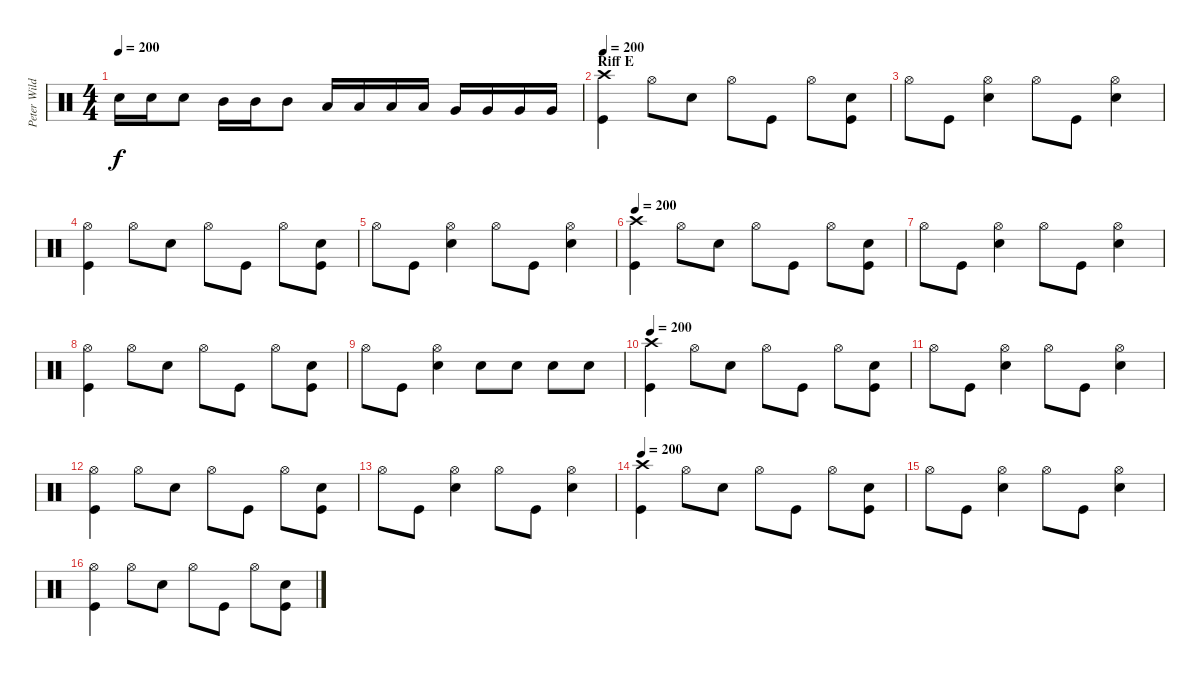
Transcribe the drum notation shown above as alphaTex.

\track ("Peter Wildoer " "Peter Wild") {instrument percussion}
\staff {score}
\articulation defaults
\ts (4 4)
\tempo 200
\clef neutral
\ks c "Snare (hit) 2".16{dy f} "Snare (hit) 2".16 "Snare (hit) 2".8 "Mid Tom (hit)".16 "Mid Tom (hit)".16 "Mid Tom (hit)".8 "Low Tom (hit)".16 "Low Tom (hit)".16 "Low Tom (hit)".16 "Low Tom (hit)".16 "Very Low Tom (hit)".16 "Very Low Tom (hit)".16 "Very Low Tom (hit)".16 "Very Low Tom (hit)".16
|
\section ("" "Riff E")
\tempo 200
("Crash high (hit)" "Kick (hit)").4 "Hi-Hat (open)".8 "Electric Snare (hit)".8 "Hi-Hat (open)".8 "Kick (hit)".8 "Hi-Hat (open)".8 ("Electric Snare (hit)" "Kick (hit)").8 |
"Hi-Hat (open)".8 "Kick (hit)".8 ("Hi-Hat (open)" "Electric Snare (hit)").4 "Hi-Hat (open)".8 "Kick (hit)".8 ("Hi-Hat (open)" "Electric Snare (hit)").4 |
("Hi-Hat (open)" "Kick (hit)").4 "Hi-Hat (open)".8 "Electric Snare (hit)".8 "Hi-Hat (open)".8 "Kick (hit)".8 "Hi-Hat (open)".8 ("Electric Snare (hit)" "Kick (hit)").8 |
"Hi-Hat (open)".8 "Kick (hit)".8 ("Hi-Hat (open)" "Electric Snare (hit)").4 "Hi-Hat (open)".8 "Kick (hit)".8 ("Hi-Hat (open)" "Electric Snare (hit)").4 |
\tempo 200
("Crash high (hit)" "Kick (hit)").4 "Hi-Hat (open)".8 "Electric Snare (hit)".8 "Hi-Hat (open)".8 "Kick (hit)".8 "Hi-Hat (open)".8 ("Electric Snare (hit)" "Kick (hit)").8 |
"Hi-Hat (open)".8 "Kick (hit)".8 ("Hi-Hat (open)" "Electric Snare (hit)").4 "Hi-Hat (open)".8 "Kick (hit)".8 ("Hi-Hat (open)" "Electric Snare (hit)").4 |
("Hi-Hat (open)" "Kick (hit)").4 "Hi-Hat (open)".8 "Electric Snare (hit)".8 "Hi-Hat (open)".8 "Kick (hit)".8 "Hi-Hat (open)".8 ("Electric Snare (hit)" "Kick (hit)").8 |
"Hi-Hat (open)".8 "Kick (hit)".8 ("Hi-Hat (open)" "Electric Snare (hit)").4 "Electric Snare (hit)".8 "Electric Snare (hit)".8 "Electric Snare (hit)".8 "Electric Snare (hit)".8 |
\tempo 200
("Crash high (hit)" "Kick (hit)").4 "Hi-Hat (open)".8 "Electric Snare (hit)".8 "Hi-Hat (open)".8 "Kick (hit)".8 "Hi-Hat (open)".8 ("Electric Snare (hit)" "Kick (hit)").8 |
"Hi-Hat (open)".8 "Kick (hit)".8 ("Hi-Hat (open)" "Electric Snare (hit)").4 "Hi-Hat (open)".8 "Kick (hit)".8 ("Hi-Hat (open)" "Electric Snare (hit)").4 |
("Hi-Hat (open)" "Kick (hit)").4 "Hi-Hat (open)".8 "Electric Snare (hit)".8 "Hi-Hat (open)".8 "Kick (hit)".8 "Hi-Hat (open)".8 ("Electric Snare (hit)" "Kick (hit)").8 |
"Hi-Hat (open)".8 "Kick (hit)".8 ("Hi-Hat (open)" "Electric Snare (hit)").4 "Hi-Hat (open)".8 "Kick (hit)".8 ("Hi-Hat (open)" "Electric Snare (hit)").4 |
\tempo 200
("Crash high (hit)" "Kick (hit)").4 "Hi-Hat (open)".8 "Electric Snare (hit)".8 "Hi-Hat (open)".8 "Kick (hit)".8 "Hi-Hat (open)".8 ("Electric Snare (hit)" "Kick (hit)").8 |
"Hi-Hat (open)".8 "Kick (hit)".8 ("Hi-Hat (open)" "Electric Snare (hit)").4 "Hi-Hat (open)".8 "Kick (hit)".8 ("Hi-Hat (open)" "Electric Snare (hit)").4 |
("Hi-Hat (open)" "Kick (hit)").4 "Hi-Hat (open)".8 "Electric Snare (hit)".8 "Hi-Hat (open)".8 "Kick (hit)".8 "Hi-Hat (open)".8 ("Electric Snare (hit)" "Kick (hit)").8
